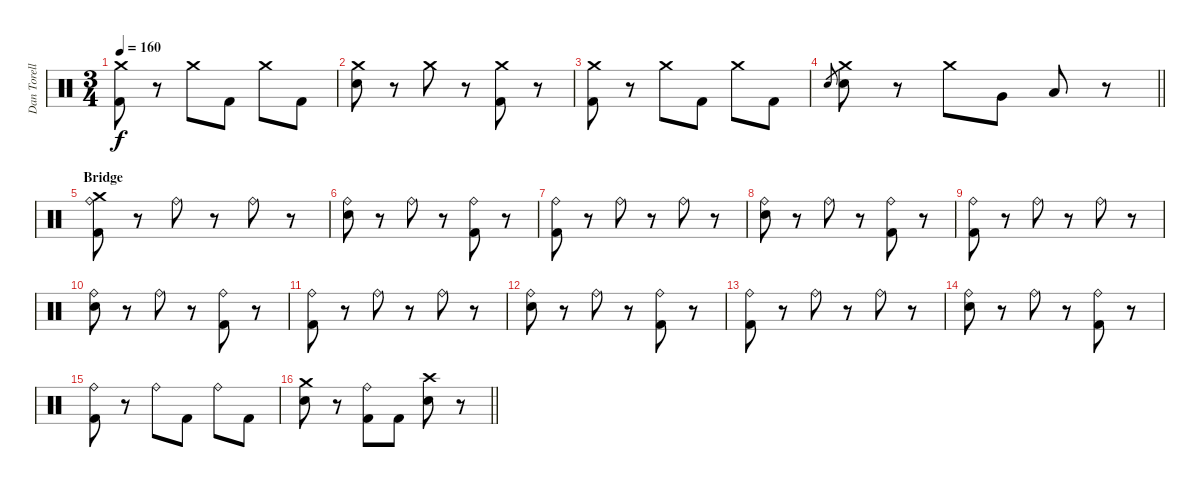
\track ("Dan Torelli - Drums" "Dan Torell") {instrument percussion}
\staff {score}
\articulation defaults
\ts (3 4)
\tempo 160
\clef neutral
\ks c
("Crash medium (hit)" "Kick (hit) 2").8{dy f} r.8 "Crash medium (hit)".8 "Kick (hit) 2".8 "Crash medium (hit)".8 "Kick (hit) 2".8 |
("Crash medium (hit)" "Electric Snare (hit)").8 r.8 "Crash medium (hit)".8 r.8 ("Crash medium (hit)" "Kick (hit) 2").8 r.8 |
("Crash medium (hit)" "Kick (hit) 2").8 r.8 "Crash medium (hit)".8 "Kick (hit) 2".8 "Crash medium (hit)".8 "Kick (hit) 2".8 |
\barLineRight lightlight "Electric Snare (hit)".8{gr}
("Crash medium (hit)" "Electric Snare (hit)").8 r.8 "Crash medium (hit)".8 "Very Low Tom (hit)".8 "Low Floor Tom (hit)".8 r.8 |
\section ("" "Bridge")
("Ride (bell)" "Crash medium (hit)" "Kick (hit) 2").8 r.8 "Ride (bell)".8 r.8 "Ride (bell)".8 r.8 |
("Ride (bell)" "Electric Snare (hit)").8 r.8 "Ride (bell)".8 r.8 ("Ride (bell)" "Kick (hit) 2").8 r.8 |
("Ride (bell)" "Kick (hit) 2").8 r.8 "Ride (bell)".8 r.8 "Ride (bell)".8 r.8 |
("Ride (bell)" "Electric Snare (hit)").8 r.8 "Ride (bell)".8 r.8 ("Ride (bell)" "Kick (hit) 2").8 r.8 |
("Ride (bell)" "Kick (hit) 2").8 r.8 "Ride (bell)".8 r.8 "Ride (bell)".8 r.8 |
("Ride (bell)" "Electric Snare (hit)").8 r.8 "Ride (bell)".8 r.8 ("Ride (bell)" "Kick (hit) 2").8 r.8 |
("Ride (bell)" "Kick (hit) 2").8 r.8 "Ride (bell)".8 r.8 "Ride (bell)".8 r.8 |
("Ride (bell)" "Electric Snare (hit)").8 r.8 "Ride (bell)".8 r.8 ("Ride (bell)" "Kick (hit) 2").8 r.8 |
("Ride (bell)" "Kick (hit) 2").8 r.8 "Ride (bell)".8 r.8 "Ride (bell)".8 r.8 |
("Ride (bell)" "Electric Snare (hit)").8 r.8 "Ride (bell)".8 r.8 ("Ride (bell)" "Kick (hit) 2").8 r.8 |
("Ride (bell)" "Kick (hit) 2").8 r.8 "Ride (bell)".8 "Kick (hit) 2".8 "Ride (bell)".8 "Kick (hit) 2".8 |
\barLineRight lightlight
("Crash medium (hit)" "Electric Snare (hit)").8 r.8 ("Ride (bell)" "Kick (hit) 2").8 "Kick (hit) 2".8 ("Crash high (hit)" "Electric Snare (hit)").8 r.8
